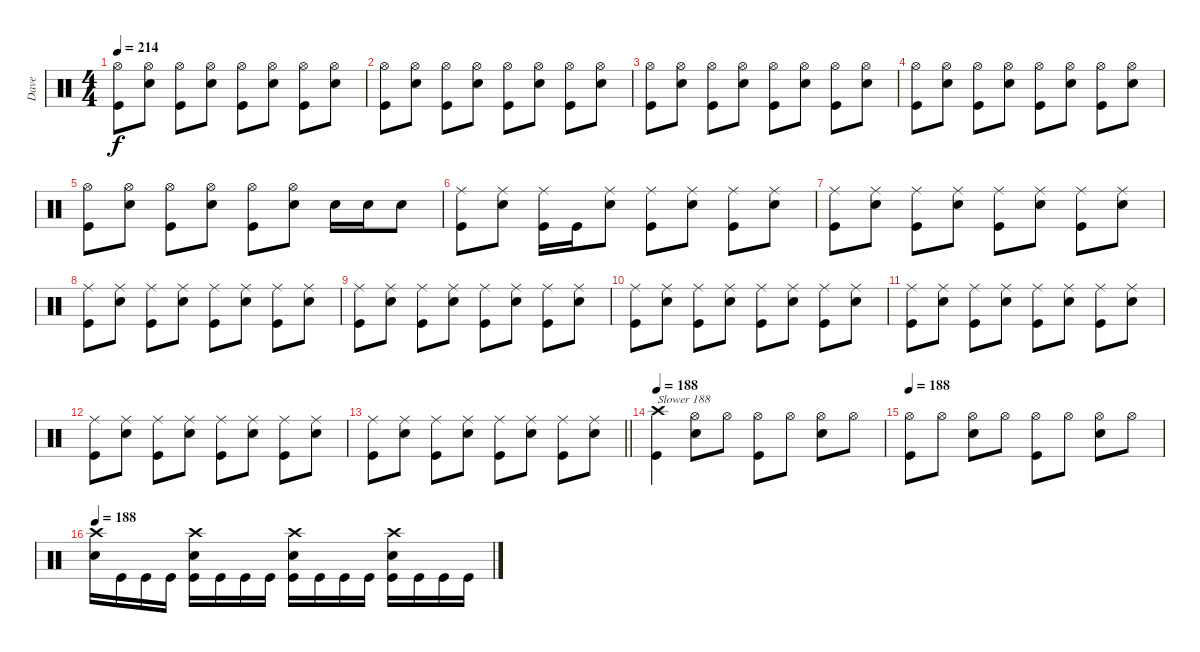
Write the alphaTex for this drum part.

\track ("Dave" "Dave") {instrument percussion}
\staff {score}
\articulation defaults
\ts (4 4)
\tempo 214
\clef neutral
\ks c
("Hi-Hat (open)" "Kick (hit)").8{dy f} ("Hi-Hat (open)" "Snare (hit) 2").8 ("Hi-Hat (open)" "Kick (hit)").8 ("Hi-Hat (open)" "Snare (hit) 2").8 ("Hi-Hat (open)" "Kick (hit)").8 ("Hi-Hat (open)" "Snare (hit) 2").8 ("Hi-Hat (open)" "Kick (hit)").8 ("Hi-Hat (open)" "Snare (hit) 2").8 |
("Hi-Hat (open)" "Kick (hit)").8 ("Hi-Hat (open)" "Snare (hit) 2").8 ("Hi-Hat (open)" "Kick (hit)").8 ("Hi-Hat (open)" "Snare (hit) 2").8 ("Hi-Hat (open)" "Kick (hit)").8 ("Hi-Hat (open)" "Snare (hit) 2").8 ("Hi-Hat (open)" "Kick (hit)").8 ("Hi-Hat (open)" "Snare (hit) 2").8 |
("Hi-Hat (open)" "Kick (hit)").8 ("Hi-Hat (open)" "Snare (hit) 2").8 ("Hi-Hat (open)" "Kick (hit)").8 ("Hi-Hat (open)" "Snare (hit) 2").8 ("Hi-Hat (open)" "Kick (hit)").8 ("Hi-Hat (open)" "Snare (hit) 2").8 ("Hi-Hat (open)" "Kick (hit)").8 ("Hi-Hat (open)" "Snare (hit) 2").8 |
("Hi-Hat (open)" "Kick (hit)").8 ("Hi-Hat (open)" "Snare (hit) 2").8 ("Hi-Hat (open)" "Kick (hit)").8 ("Hi-Hat (open)" "Snare (hit) 2").8 ("Hi-Hat (open)" "Kick (hit)").8 ("Hi-Hat (open)" "Snare (hit) 2").8 ("Hi-Hat (open)" "Kick (hit)").8 ("Hi-Hat (open)" "Snare (hit) 2").8 |
("Hi-Hat (open)" "Kick (hit)").8 ("Hi-Hat (open)" "Snare (hit) 2").8 ("Hi-Hat (open)" "Kick (hit)").8 ("Hi-Hat (open)" "Snare (hit) 2").8 ("Hi-Hat (open)" "Kick (hit)").8 ("Hi-Hat (open)" "Snare (hit) 2").8 "Snare (hit) 2".16 "Snare (hit) 2".16 "Snare (hit) 2".8 |
("Ride (middle)" "Kick (hit)").8 ("Ride (middle)" "Snare (hit) 2").8 ("Ride (middle)" "Kick (hit)").16 "Kick (hit)".16 ("Ride (middle)" "Snare (hit) 2").8 ("Ride (middle)" "Kick (hit)").8 ("Ride (middle)" "Snare (hit) 2").8 ("Ride (middle)" "Kick (hit)").8 ("Ride (middle)" "Snare (hit) 2").8 |
("Ride (middle)" "Kick (hit)").8 ("Ride (middle)" "Snare (hit) 2").8 ("Ride (middle)" "Kick (hit)").8 ("Ride (middle)" "Snare (hit) 2").8 ("Ride (middle)" "Kick (hit)").8 ("Ride (middle)" "Snare (hit) 2").8 ("Ride (middle)" "Kick (hit)").8 ("Ride (middle)" "Snare (hit) 2").8 |
("Ride (middle)" "Kick (hit)").8 ("Ride (middle)" "Snare (hit) 2").8 ("Ride (middle)" "Kick (hit)").8 ("Ride (middle)" "Snare (hit) 2").8 ("Ride (middle)" "Kick (hit)").8 ("Ride (middle)" "Snare (hit) 2").8 ("Ride (middle)" "Kick (hit)").8 ("Ride (middle)" "Snare (hit) 2").8 |
("Ride (middle)" "Kick (hit)").8 ("Ride (middle)" "Snare (hit) 2").8 ("Ride (middle)" "Kick (hit)").8 ("Ride (middle)" "Snare (hit) 2").8 ("Ride (middle)" "Kick (hit)").8 ("Ride (middle)" "Snare (hit) 2").8 ("Ride (middle)" "Kick (hit)").8 ("Ride (middle)" "Snare (hit) 2").8 |
("Ride (middle)" "Kick (hit)").8 ("Ride (middle)" "Snare (hit) 2").8 ("Ride (middle)" "Kick (hit)").8 ("Ride (middle)" "Snare (hit) 2").8 ("Ride (middle)" "Kick (hit)").8 ("Ride (middle)" "Snare (hit) 2").8 ("Ride (middle)" "Kick (hit)").8 ("Ride (middle)" "Snare (hit) 2").8 |
("Ride (middle)" "Kick (hit)").8 ("Ride (middle)" "Snare (hit) 2").8 ("Ride (middle)" "Kick (hit)").8 ("Ride (middle)" "Snare (hit) 2").8 ("Ride (middle)" "Kick (hit)").8 ("Ride (middle)" "Snare (hit) 2").8 ("Ride (middle)" "Kick (hit)").8 ("Ride (middle)" "Snare (hit) 2").8 |
("Ride (middle)" "Kick (hit)").8 ("Ride (middle)" "Snare (hit) 2").8 ("Ride (middle)" "Kick (hit)").8 ("Ride (middle)" "Snare (hit) 2").8 ("Ride (middle)" "Kick (hit)").8 ("Ride (middle)" "Snare (hit) 2").8 ("Ride (middle)" "Kick (hit)").8 ("Ride (middle)" "Snare (hit) 2").8 |
\barLineRight lightlight
("Ride (middle)" "Kick (hit)").8 ("Ride (middle)" "Snare (hit) 2").8 ("Ride (middle)" "Kick (hit)").8 ("Ride (middle)" "Snare (hit) 2").8 ("Ride (middle)" "Kick (hit)").8 ("Ride (middle)" "Snare (hit) 2").8 ("Ride (middle)" "Kick (hit)").8 ("Ride (middle)" "Snare (hit) 2").8 |
\tempo 188
("Crash high (hit)" "Kick (hit)").4{txt "Slower 188"} ("Hi-Hat (open)" "Snare (hit) 2").8 "Hi-Hat (open)".8 ("Hi-Hat (open)" "Kick (hit)").8 "Hi-Hat (open)".8 ("Hi-Hat (open)" "Snare (hit) 2").8 "Hi-Hat (open)".8 |
\tempo 188
("Hi-Hat (open)" "Kick (hit)").8 "Hi-Hat (open)".8 ("Hi-Hat (open)" "Snare (hit) 2").8 "Hi-Hat (open)".8 ("Hi-Hat (open)" "Kick (hit)").8 "Hi-Hat (open)".8 ("Hi-Hat (open)" "Snare (hit) 2").8 "Hi-Hat (open)".8 |
\tempo 188
("Crash high (hit)" "Snare (hit) 2").16 "Kick (hit)".16 "Kick (hit)".16 "Kick (hit)".16 ("Crash high (hit)" "Snare (hit) 2" "Kick (hit)").16 "Kick (hit)".16 "Kick (hit)".16 "Kick (hit)".16 ("Crash high (hit)" "Snare (hit) 2" "Kick (hit)").16 "Kick (hit)".16 "Kick (hit)".16 "Kick (hit)".16 ("Crash high (hit)" "Snare (hit) 2" "Kick (hit)").16 "Kick (hit)".16 "Kick (hit)".16 "Kick (hit)".16
